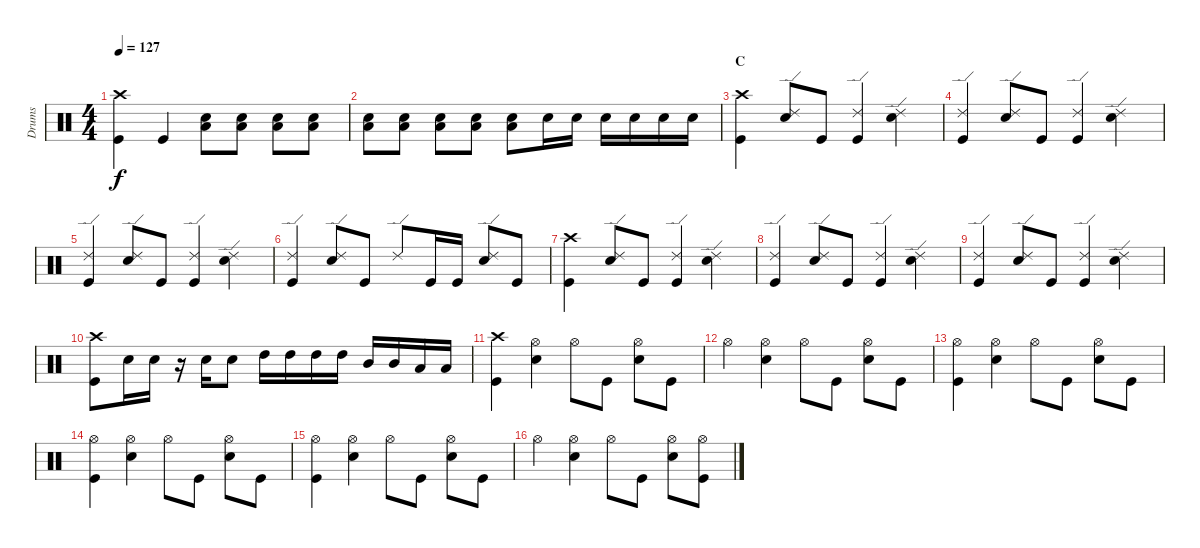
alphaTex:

\track ("Drums" "Drums") {instrument percussion}
\staff {score}
\articulation defaults
\ts (4 4)
\tempo 127
\clef neutral
\ks c
("Crash high (hit)" "Kick (hit)").4{dy f} "Kick (hit)".4 ("Low Tom (hit)" "Snare (hit) 2").8 ("Low Tom (hit)" "Snare (hit) 2").8 ("Low Tom (hit)" "Snare (hit) 2").8 ("Low Tom (hit)" "Snare (hit) 2").8 |
("Low Tom (hit)" "Snare (hit) 2").8 ("Low Tom (hit)" "Snare (hit) 2").8 ("Low Tom (hit)" "Snare (hit) 2").8 ("Low Tom (hit)" "Snare (hit) 2").8 ("Low Tom (hit)" "Snare (hit) 2").8 "Snare (hit) 2".16 "Snare (hit) 2".16 "Snare (hit) 2".16 "Snare (hit) 2".16 "Snare (hit) 2".16 "Snare (hit) 2".16 |
\section ("" "C")
("Crash high (hit)" "Kick (hit)").4 ("Ride (edge) 2" "Snare (hit) 2").8 "Kick (hit)".8 ("Ride (edge) 2" "Kick (hit)").4 ("Ride (edge) 2" "Snare (hit) 2").4 |
("Ride (edge) 2" "Kick (hit)").4 ("Ride (edge) 2" "Snare (hit) 2").8 "Kick (hit)".8 ("Ride (edge) 2" "Kick (hit)").4 ("Ride (edge) 2" "Snare (hit) 2").4 |
("Ride (edge) 2" "Kick (hit)").4 ("Ride (edge) 2" "Snare (hit) 2").8 "Kick (hit)".8 ("Ride (edge) 2" "Kick (hit)").4 ("Ride (edge) 2" "Snare (hit) 2").4 |
("Ride (edge) 2" "Kick (hit)").4 ("Ride (edge) 2" "Snare (hit) 2").8 "Kick (hit)".8 "Ride (edge) 2".8 "Kick (hit)".16 "Kick (hit)".16 ("Ride (edge) 2" "Snare (hit) 2").8 "Kick (hit)".8 |
("Crash high (hit)" "Kick (hit)").4 ("Ride (edge) 2" "Snare (hit) 2").8 "Kick (hit)".8 ("Ride (edge) 2" "Kick (hit)").4 ("Ride (edge) 2" "Snare (hit) 2").4 |
("Ride (edge) 2" "Kick (hit)").4 ("Ride (edge) 2" "Snare (hit) 2").8 "Kick (hit)".8 ("Ride (edge) 2" "Kick (hit)").4 ("Ride (edge) 2" "Snare (hit) 2").4 |
("Ride (edge) 2" "Kick (hit)").4 ("Ride (edge) 2" "Snare (hit) 2").8 "Kick (hit)".8 ("Ride (edge) 2" "Kick (hit)").4 ("Ride (edge) 2" "Snare (hit) 2").4 |
("Crash high (hit)" "Kick (hit)").8 "Snare (hit) 2".16 "Snare (hit) 2".16 r.16 "Snare (hit) 2".16 "Snare (hit) 2".8 "High Tom (hit)".16 "High Tom (hit)".16 "High Tom (hit)".16 "High Tom (hit)".16 "Mid Tom (hit)".16 "Mid Tom (hit)".16 "Low Tom (hit)".16 "Low Tom (hit)".16 |
("Crash high (hit)" "Kick (hit)").4 ("Hi-Hat (open)" "Snare (hit) 2").4 "Hi-Hat (open)".8 "Kick (hit)".8 ("Hi-Hat (open)" "Snare (hit) 2").8 "Kick (hit)".8 |
"Hi-Hat (open)".4 ("Hi-Hat (open)" "Snare (hit) 2").4 "Hi-Hat (open)".8 "Kick (hit)".8 ("Hi-Hat (open)" "Snare (hit) 2").8 "Kick (hit)".8 |
("Hi-Hat (open)" "Kick (hit)").4 ("Hi-Hat (open)" "Snare (hit) 2").4 "Hi-Hat (open)".8 "Kick (hit)".8 ("Hi-Hat (open)" "Snare (hit) 2").8 "Kick (hit)".8 |
("Hi-Hat (open)" "Kick (hit)").4 ("Hi-Hat (open)" "Snare (hit) 2").4 "Hi-Hat (open)".8 "Kick (hit)".8 ("Hi-Hat (open)" "Snare (hit) 2").8 "Kick (hit)".8 |
("Hi-Hat (open)" "Kick (hit)").4 ("Hi-Hat (open)" "Snare (hit) 2").4 "Hi-Hat (open)".8 "Kick (hit)".8 ("Hi-Hat (open)" "Snare (hit) 2").8 "Kick (hit)".8 |
"Hi-Hat (open)".4 ("Hi-Hat (open)" "Snare (hit) 2").4 "Hi-Hat (open)".8 "Kick (hit)".8 ("Hi-Hat (open)" "Snare (hit) 2").8 ("Hi-Hat (open)" "Kick (hit)").8
